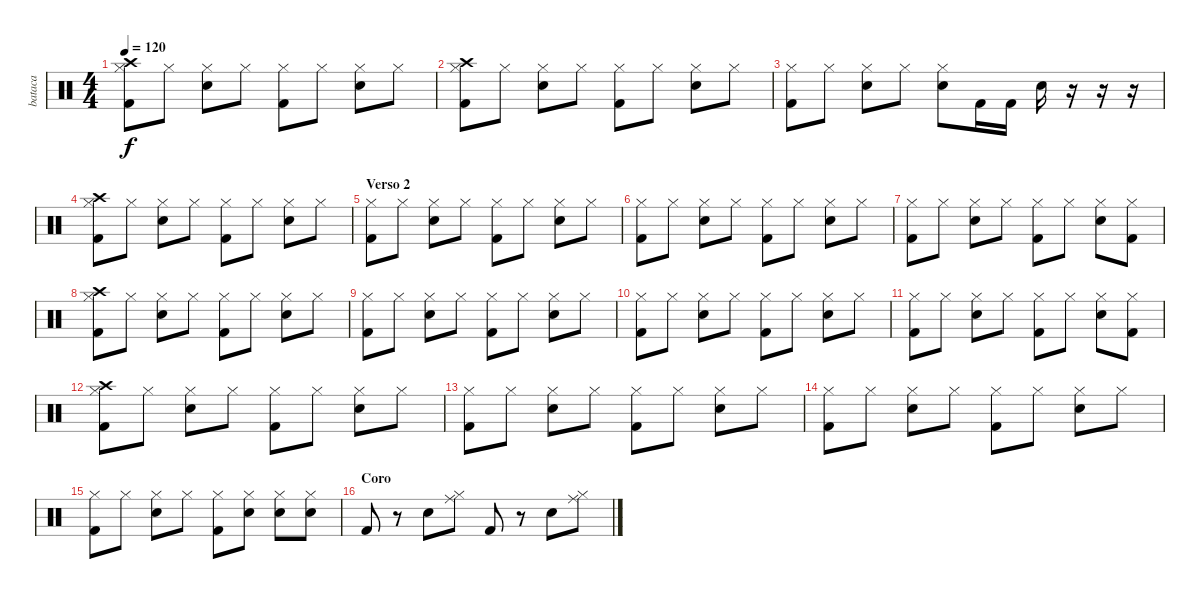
\track ("bataca" "bataca") {instrument percussion}
\staff {score}
\articulation defaults
\ts (4 4)
\tempo 120
\clef neutral
\ks c
("Hi-Hat (closed)" "Kick (hit) 2" "Crash high (hit)").8{dy f} "Hi-Hat (closed)".8 ("Hi-Hat (closed)" "Electric Snare (hit)").8 "Hi-Hat (closed)".8 ("Hi-Hat (closed)" "Kick (hit) 2").8 "Hi-Hat (closed)".8 ("Hi-Hat (closed)" "Electric Snare (hit)").8 "Hi-Hat (closed)".8 |
("Hi-Hat (closed)" "Kick (hit) 2" "Crash high (hit)").8 "Hi-Hat (closed)".8 ("Hi-Hat (closed)" "Electric Snare (hit)").8 "Hi-Hat (closed)".8 ("Hi-Hat (closed)" "Kick (hit) 2").8 "Hi-Hat (closed)".8 ("Hi-Hat (closed)" "Electric Snare (hit)").8 "Hi-Hat (closed)".8 |
("Hi-Hat (closed)" "Kick (hit) 2").8 "Hi-Hat (closed)".8 ("Hi-Hat (closed)" "Electric Snare (hit)").8 "Hi-Hat (closed)".8 ("Hi-Hat (closed)" "Electric Snare (hit)").8 "Kick (hit) 2".16 "Kick (hit) 2".16 "Electric Snare (hit)".16 r.16 r.16 r.16 |
("Hi-Hat (closed)" "Kick (hit) 2" "Crash high (hit)").8 "Hi-Hat (closed)".8 ("Hi-Hat (closed)" "Electric Snare (hit)").8 "Hi-Hat (closed)".8 ("Hi-Hat (closed)" "Kick (hit) 2").8 "Hi-Hat (closed)".8 ("Hi-Hat (closed)" "Electric Snare (hit)").8 "Hi-Hat (closed)".8 |
\section ("" "Verso 2")
("Hi-Hat (closed)" "Kick (hit) 2").8 "Hi-Hat (closed)".8 ("Hi-Hat (closed)" "Electric Snare (hit)").8 "Hi-Hat (closed)".8 ("Hi-Hat (closed)" "Kick (hit) 2").8 "Hi-Hat (closed)".8 ("Hi-Hat (closed)" "Electric Snare (hit)").8 "Hi-Hat (closed)".8 |
("Hi-Hat (closed)" "Kick (hit) 2").8 "Hi-Hat (closed)".8 ("Hi-Hat (closed)" "Electric Snare (hit)").8 "Hi-Hat (closed)".8 ("Hi-Hat (closed)" "Kick (hit) 2").8 "Hi-Hat (closed)".8 ("Hi-Hat (closed)" "Electric Snare (hit)").8 "Hi-Hat (closed)".8 |
("Hi-Hat (closed)" "Kick (hit) 2").8 "Hi-Hat (closed)".8 ("Hi-Hat (closed)" "Electric Snare (hit)").8 "Hi-Hat (closed)".8 ("Hi-Hat (closed)" "Kick (hit) 2").8 "Hi-Hat (closed)".8 ("Hi-Hat (closed)" "Electric Snare (hit)").8 ("Hi-Hat (closed)" "Kick (hit) 2").8 |
("Hi-Hat (closed)" "Kick (hit) 2" "Crash high (hit)").8 "Hi-Hat (closed)".8 ("Hi-Hat (closed)" "Electric Snare (hit)").8 "Hi-Hat (closed)".8 ("Hi-Hat (closed)" "Kick (hit) 2").8 "Hi-Hat (closed)".8 ("Hi-Hat (closed)" "Electric Snare (hit)").8 "Hi-Hat (closed)".8 |
("Hi-Hat (closed)" "Kick (hit) 2").8 "Hi-Hat (closed)".8 ("Hi-Hat (closed)" "Electric Snare (hit)").8 "Hi-Hat (closed)".8 ("Hi-Hat (closed)" "Kick (hit) 2").8 "Hi-Hat (closed)".8 ("Hi-Hat (closed)" "Electric Snare (hit)").8 "Hi-Hat (closed)".8 |
("Hi-Hat (closed)" "Kick (hit) 2").8 "Hi-Hat (closed)".8 ("Hi-Hat (closed)" "Electric Snare (hit)").8 "Hi-Hat (closed)".8 ("Hi-Hat (closed)" "Kick (hit) 2").8 "Hi-Hat (closed)".8 ("Hi-Hat (closed)" "Electric Snare (hit)").8 "Hi-Hat (closed)".8 |
("Hi-Hat (closed)" "Kick (hit) 2").8 "Hi-Hat (closed)".8 ("Hi-Hat (closed)" "Electric Snare (hit)").8 "Hi-Hat (closed)".8 ("Hi-Hat (closed)" "Kick (hit) 2").8 "Hi-Hat (closed)".8 ("Hi-Hat (closed)" "Electric Snare (hit)").8 ("Hi-Hat (closed)" "Kick (hit) 2").8 |
("Hi-Hat (closed)" "Kick (hit) 2" "Crash high (hit)").8 "Hi-Hat (closed)".8 ("Hi-Hat (closed)" "Electric Snare (hit)").8 "Hi-Hat (closed)".8 ("Hi-Hat (closed)" "Kick (hit) 2").8 "Hi-Hat (closed)".8 ("Hi-Hat (closed)" "Electric Snare (hit)").8 "Hi-Hat (closed)".8 |
("Hi-Hat (closed)" "Kick (hit) 2").8 "Hi-Hat (closed)".8 ("Hi-Hat (closed)" "Electric Snare (hit)").8 "Hi-Hat (closed)".8 ("Hi-Hat (closed)" "Kick (hit) 2").8 "Hi-Hat (closed)".8 ("Hi-Hat (closed)" "Electric Snare (hit)").8 "Hi-Hat (closed)".8 |
("Hi-Hat (closed)" "Kick (hit) 2").8 "Hi-Hat (closed)".8 ("Hi-Hat (closed)" "Electric Snare (hit)").8 "Hi-Hat (closed)".8 ("Hi-Hat (closed)" "Kick (hit) 2").8 "Hi-Hat (closed)".8 ("Hi-Hat (closed)" "Electric Snare (hit)").8 "Hi-Hat (closed)".8 |
("Hi-Hat (closed)" "Kick (hit) 2").8 "Hi-Hat (closed)".8 ("Hi-Hat (closed)" "Electric Snare (hit)").8 "Hi-Hat (closed)".8 ("Hi-Hat (closed)" "Kick (hit) 2").8 ("Hi-Hat (closed)" "Electric Snare (hit)").8 ("Hi-Hat (closed)" "Electric Snare (hit)").8 ("Hi-Hat (closed)" "Electric Snare (hit)").8 |
\section ("" "Coro")
"Kick (hit) 2".8 r.8 "Electric Snare (hit)".8 ("Ride (middle)" "Hi-Hat (closed)").8 "Kick (hit) 2".8 r.8 "Electric Snare (hit)".8 ("Ride (middle)" "Hi-Hat (closed)").8
